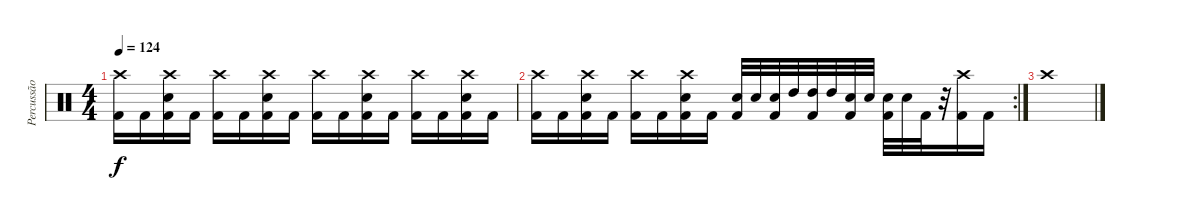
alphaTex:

\track ("Percussão" "Percussão") {instrument percussion}
\staff {score}
\articulation defaults
\ts (4 4)
\tempo 124
\clef neutral
\ks c
("Kick (hit) 2" "Crash high (hit)").16{dy f} "Kick (hit) 2".16 ("Kick (hit) 2" "Electric Snare (hit)" "Crash high (hit)").16 "Kick (hit) 2".16 ("Kick (hit) 2" "Crash high (hit)").16 "Kick (hit) 2".16 ("Kick (hit) 2" "Electric Snare (hit)" "Crash high (hit)").16 "Kick (hit) 2".16 ("Kick (hit) 2" "Crash high (hit)").16 "Kick (hit) 2".16 ("Kick (hit) 2" "Electric Snare (hit)" "Crash high (hit)").16 "Kick (hit) 2".16 ("Kick (hit) 2" "Crash high (hit)").16 "Kick (hit) 2".16 ("Kick (hit) 2" "Electric Snare (hit)" "Crash high (hit)").16 "Kick (hit) 2".16 |
\rc 2
("Kick (hit) 2" "Crash high (hit)").16 "Kick (hit) 2".16 ("Kick (hit) 2" "Electric Snare (hit)" "Crash high (hit)").16 "Kick (hit) 2".16 ("Kick (hit) 2" "Crash high (hit)").16 "Kick (hit) 2".16 ("Kick (hit) 2" "Electric Snare (hit)" "Crash high (hit)").16 "Kick (hit) 2".16 ("Kick (hit) 2" "Electric Snare (hit)").32 "Electric Snare (hit)".32 ("Kick (hit) 2" "Electric Snare (hit)").32 "High Tom (hit)".32 ("Kick (hit) 2" "High Tom (hit)").32 "High Tom (hit)".32 ("Kick (hit) 2" "Electric Snare (hit)").32 "Electric Snare (hit)".32 ("Kick (hit) 2" "Electric Snare (hit)").32 "Electric Snare (hit)".32 "Kick (hit) 2".32 r.32 ("Kick (hit) 2" "Crash high (hit)").16 "Kick (hit) 2".16 |
"Crash high (hit)".1
